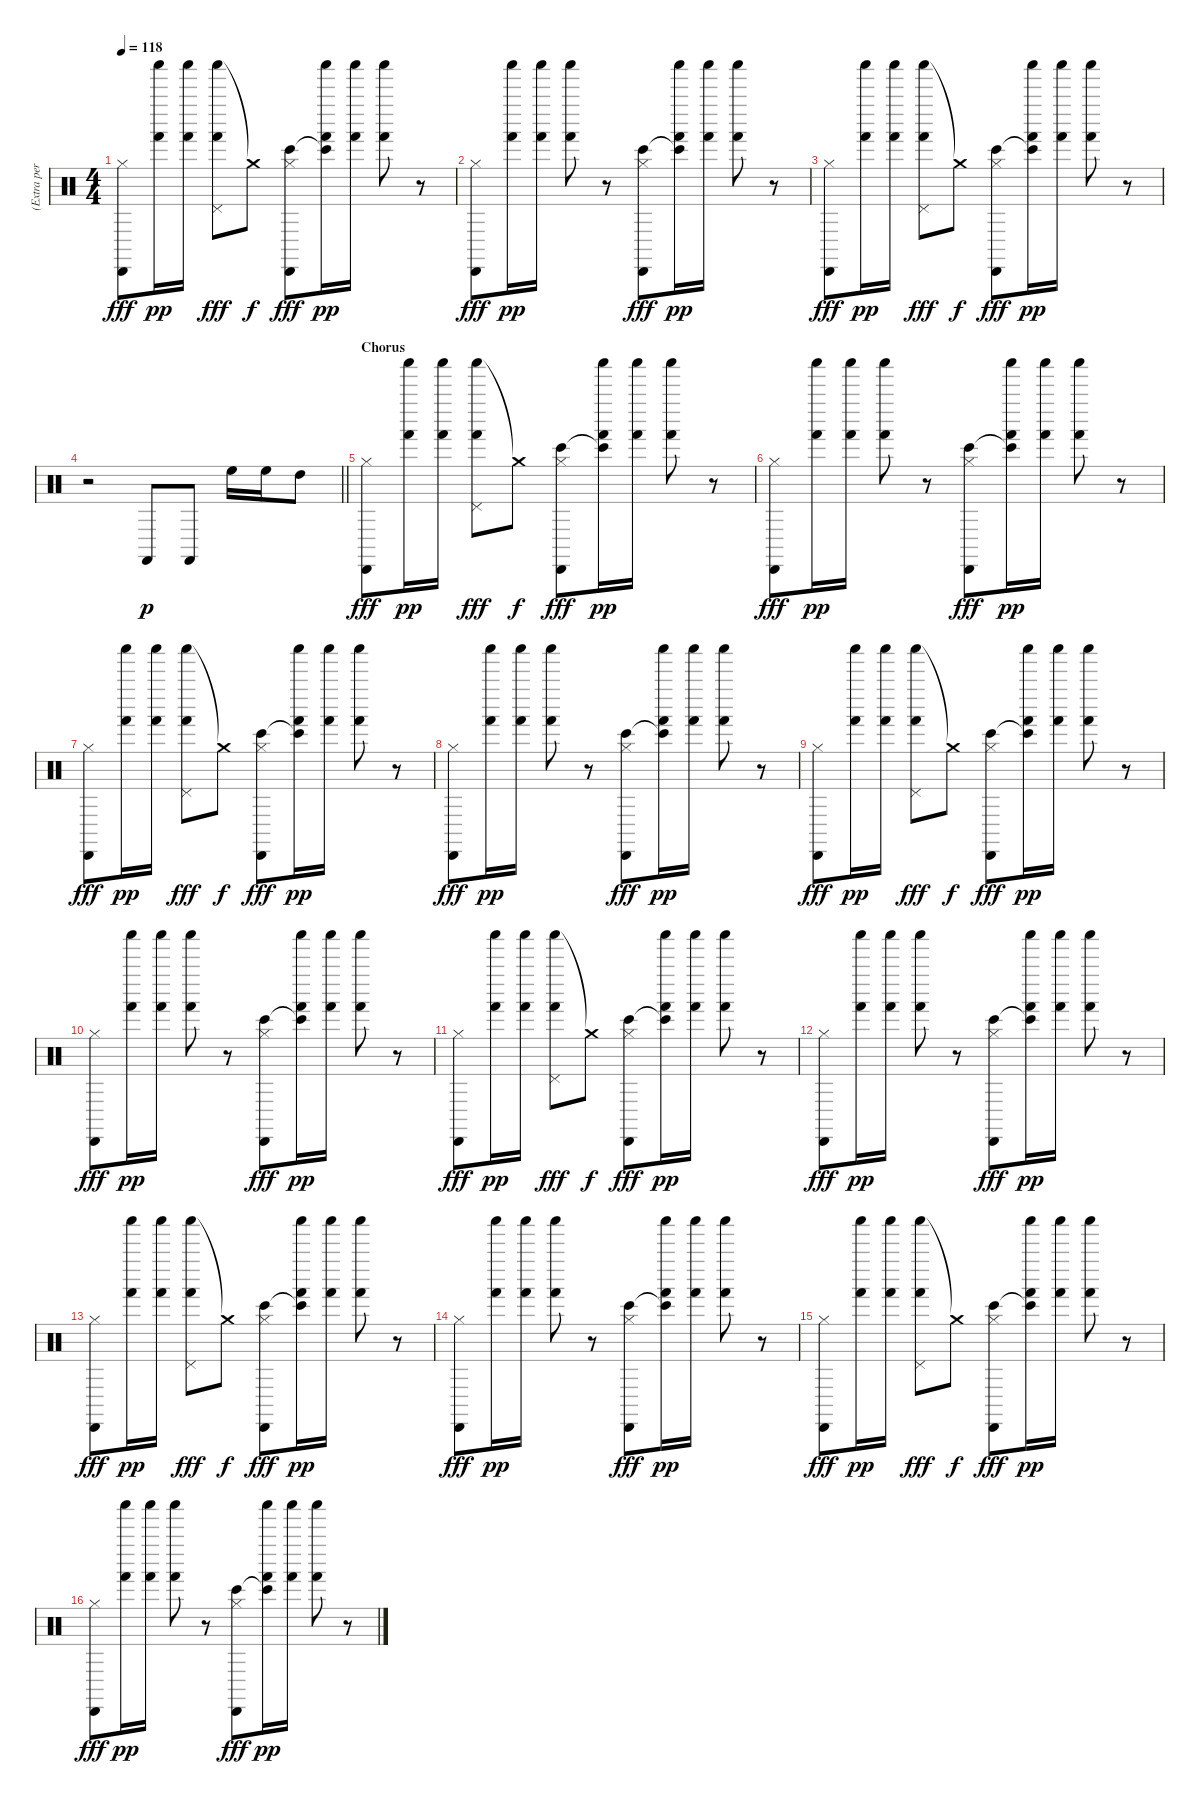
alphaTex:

\track ("(Extra percussion)Eddie Fisher" "(Extra per") {instrument percussion}
\staff {score}
\articulation defaults
\ts (4 4)
\tempo 118
\clef neutral
\ks c
("Cabasa (hit)" "Hi-Hat (closed)").8{dy fff} ("Shaker (hit)" "Hand (hit)").16{dy pp} ("Shaker (hit)" "Hand (hit)").16 ("Shaker (hit)" "Hand (hit)" "Pedal Hi-Hat (hit)").8{dy fff} "Crash medium (hit)"{t}.8{dy f} ("Cabasa (hit)" "Hi-Hat (closed)" "Bongo High (hit)").8{dy fff} ("Shaker (hit)" "Hand (hit)" "Bongo High (hit)"{t}).16{dy pp} ("Shaker (hit)" "Hand (hit)").16 ("Shaker (hit)" "Hand (hit)").8 r.8 |
("Cabasa (hit)" "Hi-Hat (closed)").8{dy fff} ("Shaker (hit)" "Hand (hit)").16{dy pp} ("Shaker (hit)" "Hand (hit)").16 ("Shaker (hit)" "Hand (hit)").8 r.8 ("Cabasa (hit)" "Hi-Hat (closed)" "Bongo High (hit)").8{dy fff} ("Shaker (hit)" "Hand (hit)" "Bongo High (hit)"{t}).16{dy pp} ("Shaker (hit)" "Hand (hit)").16 ("Shaker (hit)" "Hand (hit)").8 r.8 |
("Cabasa (hit)" "Hi-Hat (closed)").8{dy fff} ("Shaker (hit)" "Hand (hit)").16{dy pp} ("Shaker (hit)" "Hand (hit)").16 ("Shaker (hit)" "Hand (hit)" "Pedal Hi-Hat (hit)").8{dy fff} "Crash medium (hit)"{t}.8{dy f} ("Cabasa (hit)" "Hi-Hat (closed)" "Bongo High (hit)").8{dy fff} ("Shaker (hit)" "Hand (hit)" "Bongo High (hit)"{t}).16{dy pp} ("Shaker (hit)" "Hand (hit)").16 ("Shaker (hit)" "Hand (hit)").8 r.8 |
\barLineRight lightlight
r.2 "Castanets (hit)".8{dy p} "Castanets (hit)".8 "High Floor Tom (hit)".16 "High Floor Tom (hit)".16 "High Tom (hit)".8 |
\section ("" "Chorus")
("Cabasa (hit)" "Hi-Hat (closed)").8{dy fff} ("Shaker (hit)" "Hand (hit)").16{dy pp} ("Shaker (hit)" "Hand (hit)").16 ("Shaker (hit)" "Hand (hit)" "Pedal Hi-Hat (hit)").8{dy fff} "Crash medium (hit)"{t}.8{dy f} ("Cabasa (hit)" "Hi-Hat (closed)" "Bongo High (hit)").8{dy fff} ("Shaker (hit)" "Hand (hit)" "Bongo High (hit)"{t}).16{dy pp} ("Shaker (hit)" "Hand (hit)").16 ("Shaker (hit)" "Hand (hit)").8 r.8 |
("Cabasa (hit)" "Hi-Hat (closed)").8{dy fff} ("Shaker (hit)" "Hand (hit)").16{dy pp} ("Shaker (hit)" "Hand (hit)").16 ("Shaker (hit)" "Hand (hit)").8 r.8 ("Cabasa (hit)" "Hi-Hat (closed)" "Bongo High (hit)").8{dy fff} ("Shaker (hit)" "Hand (hit)" "Bongo High (hit)"{t}).16{dy pp} ("Shaker (hit)" "Hand (hit)").16 ("Shaker (hit)" "Hand (hit)").8 r.8 |
("Cabasa (hit)" "Hi-Hat (closed)").8{dy fff} ("Shaker (hit)" "Hand (hit)").16{dy pp} ("Shaker (hit)" "Hand (hit)").16 ("Shaker (hit)" "Hand (hit)" "Pedal Hi-Hat (hit)").8{dy fff} "Crash medium (hit)"{t}.8{dy f} ("Cabasa (hit)" "Hi-Hat (closed)" "Bongo High (hit)").8{dy fff} ("Shaker (hit)" "Hand (hit)" "Bongo High (hit)"{t}).16{dy pp} ("Shaker (hit)" "Hand (hit)").16 ("Shaker (hit)" "Hand (hit)").8 r.8 |
("Cabasa (hit)" "Hi-Hat (closed)").8{dy fff} ("Shaker (hit)" "Hand (hit)").16{dy pp} ("Shaker (hit)" "Hand (hit)").16 ("Shaker (hit)" "Hand (hit)").8 r.8 ("Cabasa (hit)" "Hi-Hat (closed)" "Bongo High (hit)").8{dy fff} ("Shaker (hit)" "Hand (hit)" "Bongo High (hit)"{t}).16{dy pp} ("Shaker (hit)" "Hand (hit)").16 ("Shaker (hit)" "Hand (hit)").8 r.8 |
("Cabasa (hit)" "Hi-Hat (closed)").8{dy fff} ("Shaker (hit)" "Hand (hit)").16{dy pp} ("Shaker (hit)" "Hand (hit)").16 ("Shaker (hit)" "Hand (hit)" "Pedal Hi-Hat (hit)").8{dy fff} "Crash medium (hit)"{t}.8{dy f} ("Cabasa (hit)" "Hi-Hat (closed)" "Bongo High (hit)").8{dy fff} ("Shaker (hit)" "Hand (hit)" "Bongo High (hit)"{t}).16{dy pp} ("Shaker (hit)" "Hand (hit)").16 ("Shaker (hit)" "Hand (hit)").8 r.8 |
("Cabasa (hit)" "Hi-Hat (closed)").8{dy fff} ("Shaker (hit)" "Hand (hit)").16{dy pp} ("Shaker (hit)" "Hand (hit)").16 ("Shaker (hit)" "Hand (hit)").8 r.8 ("Cabasa (hit)" "Hi-Hat (closed)" "Bongo High (hit)").8{dy fff} ("Shaker (hit)" "Hand (hit)" "Bongo High (hit)"{t}).16{dy pp} ("Shaker (hit)" "Hand (hit)").16 ("Shaker (hit)" "Hand (hit)").8 r.8 |
("Cabasa (hit)" "Hi-Hat (closed)").8{dy fff} ("Shaker (hit)" "Hand (hit)").16{dy pp} ("Shaker (hit)" "Hand (hit)").16 ("Shaker (hit)" "Hand (hit)" "Pedal Hi-Hat (hit)").8{dy fff} "Crash medium (hit)"{t}.8{dy f} ("Cabasa (hit)" "Hi-Hat (closed)" "Bongo High (hit)").8{dy fff} ("Shaker (hit)" "Hand (hit)" "Bongo High (hit)"{t}).16{dy pp} ("Shaker (hit)" "Hand (hit)").16 ("Shaker (hit)" "Hand (hit)").8 r.8 |
("Cabasa (hit)" "Hi-Hat (closed)").8{dy fff} ("Shaker (hit)" "Hand (hit)").16{dy pp} ("Shaker (hit)" "Hand (hit)").16 ("Shaker (hit)" "Hand (hit)").8 r.8 ("Cabasa (hit)" "Hi-Hat (closed)" "Bongo High (hit)").8{dy fff} ("Shaker (hit)" "Hand (hit)" "Bongo High (hit)"{t}).16{dy pp} ("Shaker (hit)" "Hand (hit)").16 ("Shaker (hit)" "Hand (hit)").8 r.8 |
("Cabasa (hit)" "Hi-Hat (closed)").8{dy fff} ("Shaker (hit)" "Hand (hit)").16{dy pp} ("Shaker (hit)" "Hand (hit)").16 ("Shaker (hit)" "Hand (hit)" "Pedal Hi-Hat (hit)").8{dy fff} "Crash medium (hit)"{t}.8{dy f} ("Cabasa (hit)" "Hi-Hat (closed)" "Bongo High (hit)").8{dy fff} ("Shaker (hit)" "Hand (hit)" "Bongo High (hit)"{t}).16{dy pp} ("Shaker (hit)" "Hand (hit)").16 ("Shaker (hit)" "Hand (hit)").8 r.8 |
("Cabasa (hit)" "Hi-Hat (closed)").8{dy fff} ("Shaker (hit)" "Hand (hit)").16{dy pp} ("Shaker (hit)" "Hand (hit)").16 ("Shaker (hit)" "Hand (hit)").8 r.8 ("Cabasa (hit)" "Hi-Hat (closed)" "Bongo High (hit)").8{dy fff} ("Shaker (hit)" "Hand (hit)" "Bongo High (hit)"{t}).16{dy pp} ("Shaker (hit)" "Hand (hit)").16 ("Shaker (hit)" "Hand (hit)").8 r.8 |
("Cabasa (hit)" "Hi-Hat (closed)").8{dy fff} ("Shaker (hit)" "Hand (hit)").16{dy pp} ("Shaker (hit)" "Hand (hit)").16 ("Shaker (hit)" "Hand (hit)" "Pedal Hi-Hat (hit)").8{dy fff} "Crash medium (hit)"{t}.8{dy f} ("Cabasa (hit)" "Hi-Hat (closed)" "Bongo High (hit)").8{dy fff} ("Shaker (hit)" "Hand (hit)" "Bongo High (hit)"{t}).16{dy pp} ("Shaker (hit)" "Hand (hit)").16 ("Shaker (hit)" "Hand (hit)").8 r.8 |
("Cabasa (hit)" "Hi-Hat (closed)").8{dy fff} ("Shaker (hit)" "Hand (hit)").16{dy pp} ("Shaker (hit)" "Hand (hit)").16 ("Shaker (hit)" "Hand (hit)").8 r.8 ("Cabasa (hit)" "Hi-Hat (closed)" "Bongo High (hit)").8{dy fff} ("Shaker (hit)" "Hand (hit)" "Bongo High (hit)"{t}).16{dy pp} ("Shaker (hit)" "Hand (hit)").16 ("Shaker (hit)" "Hand (hit)").8 r.8
